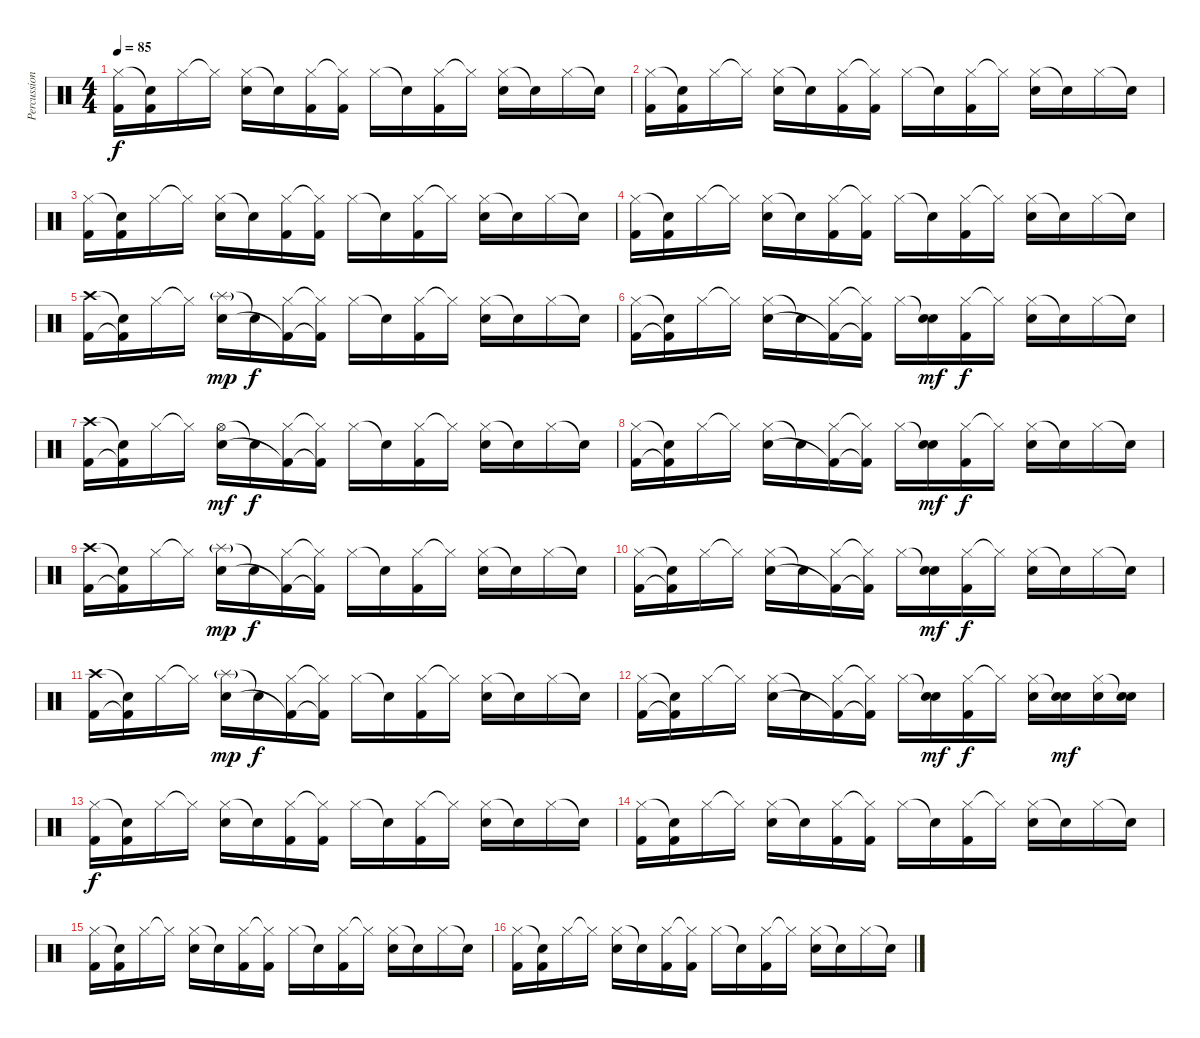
\track ("Percussion" "Percussion") {instrument percussion}
\staff {score}
\articulation defaults
\ts (4 4)
\tempo 85
\clef neutral
\ks c
("Hi-Hat (closed)" "Kick (hit) 2").16{dy f} ("Snare (hit)"{t} "Kick (hit) 2").16 "Hi-Hat (closed)".16 "Hi-Hat (closed)"{t}.16 ("Hi-Hat (closed)" "Snare (hit) 2").16 "Snare (hit)"{t}.16 ("Hi-Hat (closed)" "Kick (hit) 2").16 ("Hi-Hat (closed)"{t} "Kick (hit) 2").16 "Hi-Hat (closed)".16 "Snare (hit)"{t}.16 ("Hi-Hat (closed)" "Kick (hit) 2").16 "Hi-Hat (closed)"{t}.16 ("Hi-Hat (closed)" "Snare (hit) 2").16 "Snare (hit)"{t}.16 "Hi-Hat (closed)".16 "Snare (hit)"{t}.16 |
("Hi-Hat (closed)" "Kick (hit) 2").16 ("Snare (hit)"{t} "Kick (hit) 2").16 "Hi-Hat (closed)".16 "Hi-Hat (closed)"{t}.16 ("Hi-Hat (closed)" "Snare (hit) 2").16 "Snare (hit)"{t}.16 ("Hi-Hat (closed)" "Kick (hit) 2").16 ("Hi-Hat (closed)"{t} "Kick (hit) 2").16 "Hi-Hat (closed)".16 "Snare (hit)"{t}.16 ("Hi-Hat (closed)" "Kick (hit) 2").16 "Hi-Hat (closed)"{t}.16 ("Hi-Hat (closed)" "Snare (hit) 2").16 "Snare (hit)"{t}.16 "Hi-Hat (closed)".16 "Snare (hit)"{t}.16 |
("Hi-Hat (closed)" "Kick (hit) 2").16 ("Snare (hit)"{t} "Kick (hit) 2").16 "Hi-Hat (closed)".16 "Hi-Hat (closed)"{t}.16 ("Hi-Hat (closed)" "Snare (hit) 2").16 "Snare (hit)"{t}.16 ("Hi-Hat (closed)" "Kick (hit) 2").16 ("Hi-Hat (closed)"{t} "Kick (hit) 2").16 "Hi-Hat (closed)".16 "Snare (hit)"{t}.16 ("Hi-Hat (closed)" "Kick (hit) 2").16 "Hi-Hat (closed)"{t}.16 ("Hi-Hat (closed)" "Snare (hit) 2").16 "Snare (hit)"{t}.16 "Hi-Hat (closed)".16 "Snare (hit)"{t}.16 |
("Hi-Hat (closed)" "Kick (hit) 2").16 ("Snare (hit)"{t} "Kick (hit) 2").16 "Hi-Hat (closed)".16 "Hi-Hat (closed)"{t}.16 ("Hi-Hat (closed)" "Snare (hit) 2").16 "Snare (hit)"{t}.16 ("Hi-Hat (closed)" "Kick (hit) 2").16 ("Hi-Hat (closed)"{t} "Kick (hit) 2").16 "Hi-Hat (closed)".16 "Snare (hit)"{t}.16 ("Hi-Hat (closed)" "Kick (hit) 2").16 "Hi-Hat (closed)"{t}.16 ("Hi-Hat (closed)" "Snare (hit) 2").16 "Snare (hit)"{t}.16 "Hi-Hat (closed)".16 "Snare (hit)"{t}.16 |
("Crash high (hit)" "Kick (hit) 2").16 ("Snare (hit)"{t} "Kick (hit) 2"{t}).16 "Hi-Hat (closed)".16 "Hi-Hat (closed)"{t}.16 ("Splash (hit)"{g} "Snare (hit) 2").16{dy mp} "Snare (hit)"{t}.16{dy f} ("Hi-Hat (closed)" "Kick (hit) 2"{t}).16 ("Hi-Hat (closed)"{t} "Kick (hit) 2"{t}).16 "Hi-Hat (closed)".16 "Snare (hit)"{t}.16 ("Hi-Hat (closed)" "Kick (hit) 2").16 "Hi-Hat (closed)"{t}.16 ("Hi-Hat (closed)" "Snare (hit) 2").16 "Snare (hit)"{t}.16 "Hi-Hat (closed)".16 "Snare (hit)"{t}.16 |
("Hi-Hat (closed)" "Kick (hit) 2").16 ("Snare (hit)"{t} "Kick (hit) 2"{t}).16 "Hi-Hat (closed)".16 "Hi-Hat (closed)"{t}.16 ("Hi-Hat (closed)" "Snare (hit) 2").16 "Snare (hit)"{t}.16 ("Hi-Hat (closed)" "Kick (hit) 2"{t}).16 ("Hi-Hat (closed)"{t} "Kick (hit) 2"{t}).16 "Hi-Hat (closed)".16 ("Snare (hit)"{t} "Snare (hit) 2").16{dy mf} ("Hi-Hat (closed)" "Kick (hit) 2").16{dy f} "Hi-Hat (closed)"{t}.16 ("Hi-Hat (closed)" "Snare (hit) 2").16 "Snare (hit)"{t}.16 "Hi-Hat (closed)".16 "Snare (hit)"{t}.16 |
("Crash high (hit)" "Kick (hit) 2").16 ("Snare (hit)"{t} "Kick (hit) 2"{t}).16 "Hi-Hat (closed)".16 "Hi-Hat (closed)"{t}.16 ("Hi-Hat (open)" "Snare (hit) 2").16{dy mf} "Snare (hit)"{t}.16{dy f} ("Hi-Hat (closed)" "Kick (hit) 2"{t}).16 ("Hi-Hat (closed)"{t} "Kick (hit) 2"{t}).16 "Hi-Hat (closed)".16 "Snare (hit)"{t}.16 ("Hi-Hat (closed)" "Kick (hit) 2").16 "Hi-Hat (closed)"{t}.16 ("Hi-Hat (closed)" "Snare (hit) 2").16 "Snare (hit)"{t}.16 "Hi-Hat (closed)".16 "Snare (hit)"{t}.16 |
("Hi-Hat (closed)" "Kick (hit) 2").16 ("Snare (hit)"{t} "Kick (hit) 2"{t}).16 "Hi-Hat (closed)".16 "Hi-Hat (closed)"{t}.16 ("Hi-Hat (closed)" "Snare (hit) 2").16 "Snare (hit)"{t}.16 ("Hi-Hat (closed)" "Kick (hit) 2"{t}).16 ("Hi-Hat (closed)"{t} "Kick (hit) 2"{t}).16 "Hi-Hat (closed)".16 ("Snare (hit)"{t} "Snare (hit) 2").16{dy mf} ("Hi-Hat (closed)" "Kick (hit) 2").16{dy f} "Hi-Hat (closed)"{t}.16 ("Hi-Hat (closed)" "Snare (hit) 2").16 "Snare (hit)"{t}.16 "Hi-Hat (closed)".16 "Snare (hit)"{t}.16 |
("Crash high (hit)" "Kick (hit) 2").16 ("Snare (hit)"{t} "Kick (hit) 2"{t}).16 "Hi-Hat (closed)".16 "Hi-Hat (closed)"{t}.16 ("Splash (hit)"{g} "Snare (hit) 2").16{dy mp} "Snare (hit)"{t}.16{dy f} ("Hi-Hat (closed)" "Kick (hit) 2"{t}).16 ("Hi-Hat (closed)"{t} "Kick (hit) 2"{t}).16 "Hi-Hat (closed)".16 "Snare (hit)"{t}.16 ("Hi-Hat (closed)" "Kick (hit) 2").16 "Hi-Hat (closed)"{t}.16 ("Hi-Hat (closed)" "Snare (hit) 2").16 "Snare (hit)"{t}.16 "Hi-Hat (closed)".16 "Snare (hit)"{t}.16 |
("Hi-Hat (closed)" "Kick (hit) 2").16 ("Snare (hit)"{t} "Kick (hit) 2"{t}).16 "Hi-Hat (closed)".16 "Hi-Hat (closed)"{t}.16 ("Hi-Hat (closed)" "Snare (hit) 2").16 "Snare (hit)"{t}.16 ("Hi-Hat (closed)" "Kick (hit) 2"{t}).16 ("Hi-Hat (closed)"{t} "Kick (hit) 2"{t}).16 "Hi-Hat (closed)".16 ("Snare (hit)"{t} "Snare (hit) 2").16{dy mf} ("Hi-Hat (closed)" "Kick (hit) 2").16{dy f} "Hi-Hat (closed)"{t}.16 ("Hi-Hat (closed)" "Snare (hit) 2").16 "Snare (hit)"{t}.16 "Hi-Hat (closed)".16 "Snare (hit)"{t}.16 |
("Crash high (hit)" "Kick (hit) 2").16 ("Snare (hit)"{t} "Kick (hit) 2"{t}).16 "Hi-Hat (closed)".16 "Hi-Hat (closed)"{t}.16 ("Splash (hit)"{g} "Snare (hit) 2").16{dy mp} "Snare (hit)"{t}.16{dy f} ("Hi-Hat (closed)" "Kick (hit) 2"{t}).16 ("Hi-Hat (closed)"{t} "Kick (hit) 2"{t}).16 "Hi-Hat (closed)".16 "Snare (hit)"{t}.16 ("Hi-Hat (closed)" "Kick (hit) 2").16 "Hi-Hat (closed)"{t}.16 ("Hi-Hat (closed)" "Snare (hit) 2").16 "Snare (hit)"{t}.16 "Hi-Hat (closed)".16 "Snare (hit)"{t}.16 |
("Hi-Hat (closed)" "Kick (hit) 2").16 ("Snare (hit)"{t} "Kick (hit) 2"{t}).16 "Hi-Hat (closed)".16 "Hi-Hat (closed)"{t}.16 ("Hi-Hat (closed)" "Snare (hit) 2").16 "Snare (hit)"{t}.16 ("Hi-Hat (closed)" "Kick (hit) 2"{t}).16 ("Hi-Hat (closed)"{t} "Kick (hit) 2"{t}).16 "Hi-Hat (closed)".16 ("Snare (hit)"{t} "Snare (hit) 2").16{dy mf} ("Hi-Hat (closed)" "Kick (hit) 2").16{dy f} "Hi-Hat (closed)"{t}.16 ("Hi-Hat (closed)" "Snare (hit) 2").16 ("Snare (hit)"{t} "Snare (hit) 2").16{dy mf} ("Hi-Hat (closed)" "Snare (hit) 2").16 ("Snare (hit)"{t} "Snare (hit) 2").16 |
("Hi-Hat (closed)" "Kick (hit) 2").16{dy f} ("Snare (hit)"{t} "Kick (hit) 2").16 "Hi-Hat (closed)".16 "Hi-Hat (closed)"{t}.16 ("Hi-Hat (closed)" "Snare (hit) 2").16 "Snare (hit)"{t}.16 ("Hi-Hat (closed)" "Kick (hit) 2").16 ("Hi-Hat (closed)"{t} "Kick (hit) 2").16 "Hi-Hat (closed)".16 "Snare (hit)"{t}.16 ("Hi-Hat (closed)" "Kick (hit) 2").16 "Hi-Hat (closed)"{t}.16 ("Hi-Hat (closed)" "Snare (hit) 2").16 "Snare (hit)"{t}.16 "Hi-Hat (closed)".16 "Snare (hit)"{t}.16 |
("Hi-Hat (closed)" "Kick (hit) 2").16 ("Snare (hit)"{t} "Kick (hit) 2").16 "Hi-Hat (closed)".16 "Hi-Hat (closed)"{t}.16 ("Hi-Hat (closed)" "Snare (hit) 2").16 "Snare (hit)"{t}.16 ("Hi-Hat (closed)" "Kick (hit) 2").16 ("Hi-Hat (closed)"{t} "Kick (hit) 2").16 "Hi-Hat (closed)".16 "Snare (hit)"{t}.16 ("Hi-Hat (closed)" "Kick (hit) 2").16 "Hi-Hat (closed)"{t}.16 ("Hi-Hat (closed)" "Snare (hit) 2").16 "Snare (hit)"{t}.16 "Hi-Hat (closed)".16 "Snare (hit)"{t}.16 |
("Hi-Hat (closed)" "Kick (hit) 2").16 ("Snare (hit)"{t} "Kick (hit) 2").16 "Hi-Hat (closed)".16 "Hi-Hat (closed)"{t}.16 ("Hi-Hat (closed)" "Snare (hit) 2").16 "Snare (hit)"{t}.16 ("Hi-Hat (closed)" "Kick (hit) 2").16 ("Hi-Hat (closed)"{t} "Kick (hit) 2").16 "Hi-Hat (closed)".16 "Snare (hit)"{t}.16 ("Hi-Hat (closed)" "Kick (hit) 2").16 "Hi-Hat (closed)"{t}.16 ("Hi-Hat (closed)" "Snare (hit) 2").16 "Snare (hit)"{t}.16 "Hi-Hat (closed)".16 "Snare (hit)"{t}.16 |
("Hi-Hat (closed)" "Kick (hit) 2").16 ("Snare (hit)"{t} "Kick (hit) 2").16 "Hi-Hat (closed)".16 "Hi-Hat (closed)"{t}.16 ("Hi-Hat (closed)" "Snare (hit) 2").16 "Snare (hit)"{t}.16 ("Hi-Hat (closed)" "Kick (hit) 2").16 ("Hi-Hat (closed)"{t} "Kick (hit) 2").16 "Hi-Hat (closed)".16 "Snare (hit)"{t}.16 ("Hi-Hat (closed)" "Kick (hit) 2").16 "Hi-Hat (closed)"{t}.16 ("Hi-Hat (closed)" "Snare (hit) 2").16 "Snare (hit)"{t}.16 "Hi-Hat (closed)".16 "Snare (hit)"{t}.16
